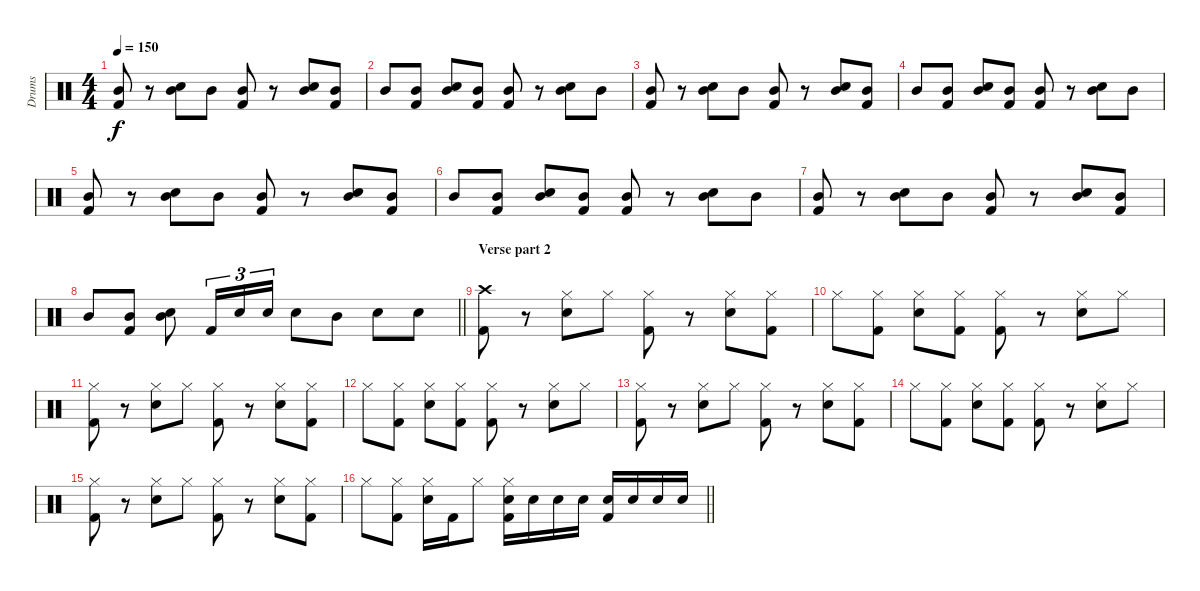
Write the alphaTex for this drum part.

\track ("Drums" "Drums") {instrument percussion}
\staff {score}
\articulation defaults
\ts (4 4)
\tempo 150
\clef neutral
\ks c
("Mid Tom (hit)" "Kick (hit) 2").8{dy f} r.8 ("Snare (hit) 2" "Mid Tom (hit)").8 "Mid Tom (hit)".8 ("Mid Tom (hit)" "Kick (hit) 2").8 r.8 ("Snare (hit) 2" "Mid Tom (hit)").8 ("Mid Tom (hit)" "Kick (hit) 2").8 |
"Mid Tom (hit)".8 ("Mid Tom (hit)" "Kick (hit) 2").8 ("Snare (hit) 2" "Mid Tom (hit)").8 ("Mid Tom (hit)" "Kick (hit) 2").8 ("Mid Tom (hit)" "Kick (hit) 2").8 r.8 ("Snare (hit) 2" "Mid Tom (hit)").8 "Mid Tom (hit)".8 |
("Mid Tom (hit)" "Kick (hit) 2").8 r.8 ("Snare (hit) 2" "Mid Tom (hit)").8 "Mid Tom (hit)".8 ("Mid Tom (hit)" "Kick (hit) 2").8 r.8 ("Snare (hit) 2" "Mid Tom (hit)").8 ("Mid Tom (hit)" "Kick (hit) 2").8 |
"Mid Tom (hit)".8 ("Mid Tom (hit)" "Kick (hit) 2").8 ("Snare (hit) 2" "Mid Tom (hit)").8 ("Mid Tom (hit)" "Kick (hit) 2").8 ("Mid Tom (hit)" "Kick (hit) 2").8 r.8 ("Snare (hit) 2" "Mid Tom (hit)").8 "Mid Tom (hit)".8 |
("Mid Tom (hit)" "Kick (hit) 2").8 r.8 ("Snare (hit) 2" "Mid Tom (hit)").8 "Mid Tom (hit)".8 ("Mid Tom (hit)" "Kick (hit) 2").8 r.8 ("Snare (hit) 2" "Mid Tom (hit)").8 ("Mid Tom (hit)" "Kick (hit) 2").8 |
"Mid Tom (hit)".8 ("Mid Tom (hit)" "Kick (hit) 2").8 ("Snare (hit) 2" "Mid Tom (hit)").8 ("Mid Tom (hit)" "Kick (hit) 2").8 ("Mid Tom (hit)" "Kick (hit) 2").8 r.8 ("Snare (hit) 2" "Mid Tom (hit)").8 "Mid Tom (hit)".8 |
("Mid Tom (hit)" "Kick (hit) 2").8 r.8 ("Snare (hit) 2" "Mid Tom (hit)").8 "Mid Tom (hit)".8 ("Mid Tom (hit)" "Kick (hit) 2").8 r.8 ("Snare (hit) 2" "Mid Tom (hit)").8 ("Mid Tom (hit)" "Kick (hit) 2").8 |
\barLineRight lightlight "Mid Tom (hit)".8
("Mid Tom (hit)" "Kick (hit) 2").8 ("Snare (hit) 2" "Mid Tom (hit)").8 "Kick (hit) 2".16{tu (3 2)} "Snare (hit) 2".16{tu (3 2)} "Snare (hit) 2".16{tu (3 2)} "Snare (hit) 2".8 "Mid Tom (hit)".8 "Snare (hit) 2".8 "Snare (hit) 2".8 |
\section ("" "Verse part 2")
("Crash high (hit)" "Kick (hit) 2").8 r.8 ("Snare (hit) 2" "Hi-Hat (closed)").8 "Hi-Hat (closed)".8 ("Hi-Hat (closed)" "Kick (hit) 2").8 r.8 ("Snare (hit) 2" "Hi-Hat (closed)").8 ("Hi-Hat (closed)" "Kick (hit) 2").8 |
"Hi-Hat (closed)".8 ("Hi-Hat (closed)" "Kick (hit) 2").8 ("Snare (hit) 2" "Hi-Hat (closed)").8 ("Hi-Hat (closed)" "Kick (hit) 2").8 ("Hi-Hat (closed)" "Kick (hit) 2").8 r.8 ("Snare (hit) 2" "Hi-Hat (closed)").8 "Hi-Hat (closed)".8 |
("Hi-Hat (closed)" "Kick (hit) 2").8 r.8 ("Snare (hit) 2" "Hi-Hat (closed)").8 "Hi-Hat (closed)".8 ("Hi-Hat (closed)" "Kick (hit) 2").8 r.8 ("Snare (hit) 2" "Hi-Hat (closed)").8 ("Hi-Hat (closed)" "Kick (hit) 2").8 |
"Hi-Hat (closed)".8 ("Hi-Hat (closed)" "Kick (hit) 2").8 ("Snare (hit) 2" "Hi-Hat (closed)").8 ("Hi-Hat (closed)" "Kick (hit) 2").8 ("Hi-Hat (closed)" "Kick (hit) 2").8 r.8 ("Snare (hit) 2" "Hi-Hat (closed)").8 "Hi-Hat (closed)".8 |
("Hi-Hat (closed)" "Kick (hit) 2").8 r.8 ("Snare (hit) 2" "Hi-Hat (closed)").8 "Hi-Hat (closed)".8 ("Hi-Hat (closed)" "Kick (hit) 2").8 r.8 ("Snare (hit) 2" "Hi-Hat (closed)").8 ("Hi-Hat (closed)" "Kick (hit) 2").8 |
"Hi-Hat (closed)".8 ("Hi-Hat (closed)" "Kick (hit) 2").8 ("Snare (hit) 2" "Hi-Hat (closed)").8 ("Hi-Hat (closed)" "Kick (hit) 2").8 ("Hi-Hat (closed)" "Kick (hit) 2").8 r.8 ("Snare (hit) 2" "Hi-Hat (closed)").8 "Hi-Hat (closed)".8 |
("Hi-Hat (closed)" "Kick (hit) 2").8 r.8 ("Snare (hit) 2" "Hi-Hat (closed)").8 "Hi-Hat (closed)".8 ("Hi-Hat (closed)" "Kick (hit) 2").8 r.8 ("Snare (hit) 2" "Hi-Hat (closed)").8 ("Hi-Hat (closed)" "Kick (hit) 2").8 |
\barLineRight lightlight "Hi-Hat (closed)".8
("Hi-Hat (closed)" "Kick (hit) 2").8 ("Snare (hit) 2" "Hi-Hat (closed)").16 "Kick (hit) 2".16 "Hi-Hat (closed)".8 ("Snare (hit) 2" "Hi-Hat (closed)" "Kick (hit) 2").16 "Snare (hit) 2".16 "Snare (hit) 2".16 "Snare (hit) 2".16 ("Snare (hit) 2" "Kick (hit) 2").16 "Snare (hit) 2".16 "Snare (hit) 2".16 "Snare (hit) 2".16
